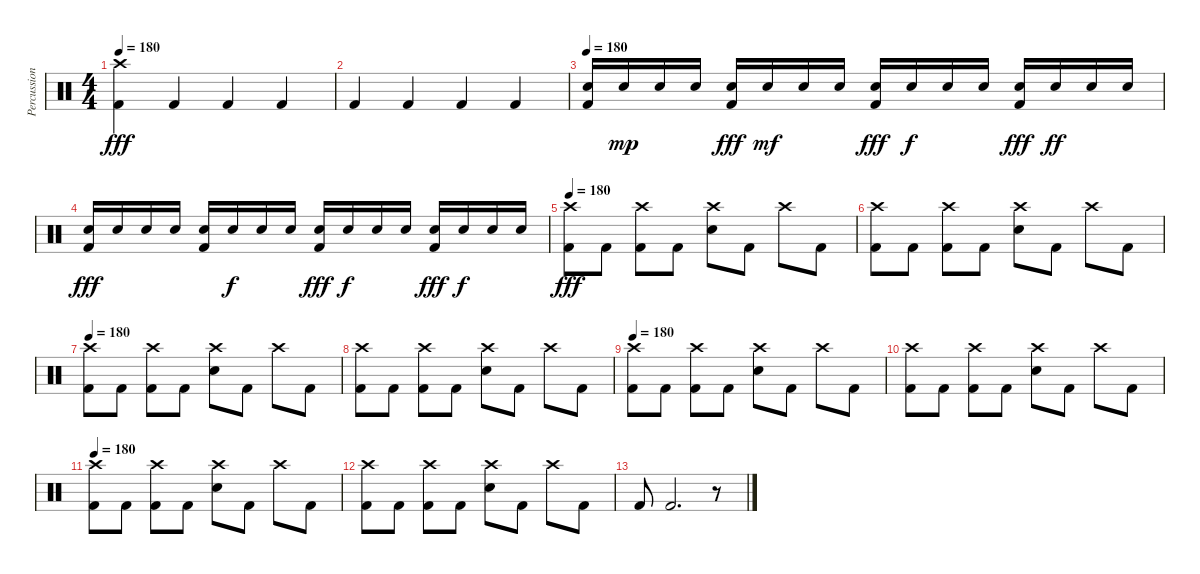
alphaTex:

\track ("Percussion" "Percussion") {instrument percussion}
\staff {score}
\articulation defaults
\ts (4 4)
\tempo 180
\clef neutral
\ks c
("Crash high (hit)" "Kick (hit) 2").4{dy fff} "Kick (hit) 2".4 "Kick (hit) 2".4 "Kick (hit) 2".4 |
"Kick (hit) 2".4 "Kick (hit) 2".4 "Kick (hit) 2".4 "Kick (hit) 2".4 |
\tempo 180
("Electric Snare (hit)" "Kick (hit) 2").16 "Electric Snare (hit)".16{dy mp} "Electric Snare (hit)".16 "Electric Snare (hit)".16 ("Electric Snare (hit)" "Kick (hit) 2").16{dy fff} "Electric Snare (hit)".16{dy mf} "Electric Snare (hit)".16 "Electric Snare (hit)".16 ("Electric Snare (hit)" "Kick (hit) 2").16{dy fff} "Electric Snare (hit)".16{dy f} "Electric Snare (hit)".16 "Electric Snare (hit)".16 ("Electric Snare (hit)" "Kick (hit) 2").16{dy fff} "Electric Snare (hit)".16{dy ff} "Electric Snare (hit)".16 "Electric Snare (hit)".16 |
("Electric Snare (hit)" "Kick (hit) 2").16{dy fff} "Electric Snare (hit)".16 "Electric Snare (hit)".16 "Electric Snare (hit)".16 ("Electric Snare (hit)" "Kick (hit) 2").16 "Electric Snare (hit)".16{dy f} "Electric Snare (hit)".16 "Electric Snare (hit)".16 ("Electric Snare (hit)" "Kick (hit) 2").16{dy fff} "Electric Snare (hit)".16{dy f} "Electric Snare (hit)".16 "Electric Snare (hit)".16 ("Electric Snare (hit)" "Kick (hit) 2").16{dy fff} "Electric Snare (hit)".16{dy f} "Electric Snare (hit)".16 "Electric Snare (hit)".16 |
\tempo 180
("Crash high (hit)" "Kick (hit) 2").8{dy fff} "Kick (hit) 2".8 ("Crash high (hit)" "Kick (hit) 2").8 "Kick (hit) 2".8 ("Crash high (hit)" "Electric Snare (hit)").8 "Kick (hit) 2".8 "Crash high (hit)".8 "Kick (hit) 2".8 |
("Crash high (hit)" "Kick (hit) 2").8 "Kick (hit) 2".8 ("Crash high (hit)" "Kick (hit) 2").8 "Kick (hit) 2".8 ("Crash high (hit)" "Electric Snare (hit)").8 "Kick (hit) 2".8 "Crash high (hit)".8 "Kick (hit) 2".8 |
\tempo 180
("Crash high (hit)" "Kick (hit) 2").8 "Kick (hit) 2".8 ("Crash high (hit)" "Kick (hit) 2").8 "Kick (hit) 2".8 ("Crash high (hit)" "Electric Snare (hit)").8 "Kick (hit) 2".8 "Crash high (hit)".8 "Kick (hit) 2".8 |
("Crash high (hit)" "Kick (hit) 2").8 "Kick (hit) 2".8 ("Crash high (hit)" "Kick (hit) 2").8 "Kick (hit) 2".8 ("Crash high (hit)" "Electric Snare (hit)").8 "Kick (hit) 2".8 "Crash high (hit)".8 "Kick (hit) 2".8 |
\tempo 180
("Crash high (hit)" "Kick (hit) 2").8 "Kick (hit) 2".8 ("Crash high (hit)" "Kick (hit) 2").8 "Kick (hit) 2".8 ("Crash high (hit)" "Electric Snare (hit)").8 "Kick (hit) 2".8 "Crash high (hit)".8 "Kick (hit) 2".8 |
("Crash high (hit)" "Kick (hit) 2").8 "Kick (hit) 2".8 ("Crash high (hit)" "Kick (hit) 2").8 "Kick (hit) 2".8 ("Crash high (hit)" "Electric Snare (hit)").8 "Kick (hit) 2".8 "Crash high (hit)".8 "Kick (hit) 2".8 |
\tempo 180
("Crash high (hit)" "Kick (hit) 2").8 "Kick (hit) 2".8 ("Crash high (hit)" "Kick (hit) 2").8 "Kick (hit) 2".8 ("Crash high (hit)" "Electric Snare (hit)").8 "Kick (hit) 2".8 "Crash high (hit)".8 "Kick (hit) 2".8 |
("Crash high (hit)" "Kick (hit) 2").8 "Kick (hit) 2".8 ("Crash high (hit)" "Kick (hit) 2").8 "Kick (hit) 2".8 ("Crash high (hit)" "Electric Snare (hit)").8 "Kick (hit) 2".8 "Crash high (hit)".8 "Kick (hit) 2".8 |
"Kick (hit) 2".8 "Kick (hit) 2".2{d} r.8
